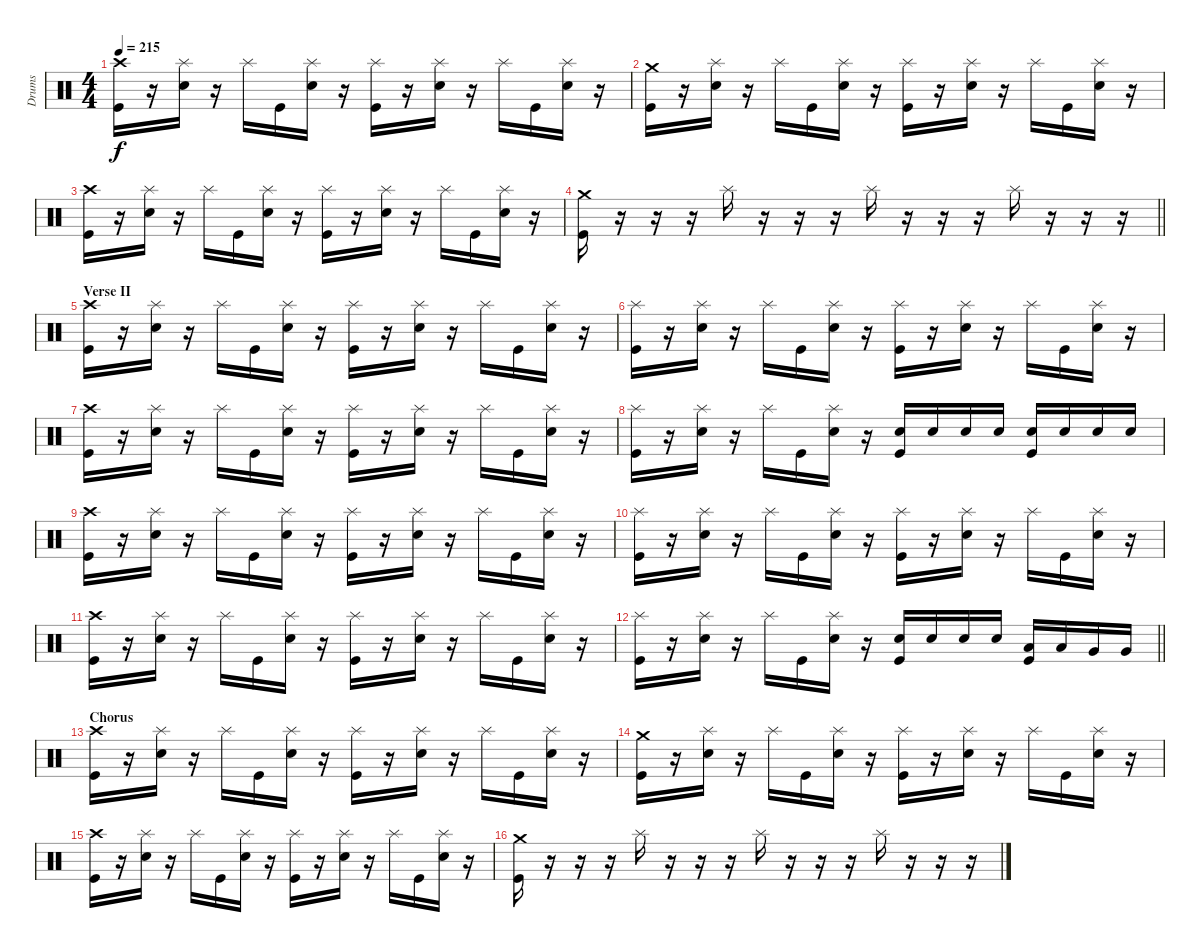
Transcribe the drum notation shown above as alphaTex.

\track ("Drums" "Drums") {instrument percussion}
\staff {score}
\articulation defaults
\ts (4 4)
\tempo 215
\clef neutral
\ks c
("Crash high (hit)" "Kick (hit)").16{dy f} r.16 ("Splash (hit)" "Electric Snare (hit)").16 r.16 "Splash (hit)".16 "Kick (hit)".16 ("Splash (hit)" "Electric Snare (hit)").16 r.16 ("Splash (hit)" "Kick (hit)").16 r.16 ("Splash (hit)" "Electric Snare (hit)").16 r.16 "Splash (hit)".16 "Kick (hit)".16 ("Splash (hit)" "Electric Snare (hit)").16 r.16 |
("Crash medium (hit)" "Kick (hit)").16 r.16 ("Splash (hit)" "Electric Snare (hit)").16 r.16 "Splash (hit)".16 "Kick (hit)".16 ("Splash (hit)" "Electric Snare (hit)").16 r.16 ("Splash (hit)" "Kick (hit)").16 r.16 ("Splash (hit)" "Electric Snare (hit)").16 r.16 "Splash (hit)".16 "Kick (hit)".16 ("Splash (hit)" "Electric Snare (hit)").16 r.16 |
("Crash high (hit)" "Kick (hit)").16 r.16 ("Splash (hit)" "Electric Snare (hit)").16 r.16 "Splash (hit)".16 "Kick (hit)".16 ("Splash (hit)" "Electric Snare (hit)").16 r.16 ("Splash (hit)" "Kick (hit)").16 r.16 ("Splash (hit)" "Electric Snare (hit)").16 r.16 "Splash (hit)".16 "Kick (hit)".16 ("Splash (hit)" "Electric Snare (hit)").16 r.16 |
\barLineRight lightlight
("Crash medium (hit)" "Kick (hit)").16 r.16 r.16 r.16 "Splash (hit)".16 r.16 r.16 r.16 "Splash (hit)".16 r.16 r.16 r.16 "Splash (hit)".16 r.16 r.16 r.16 |
\section ("" "Verse II")
("Crash high (hit)" "Kick (hit)").16 r.16 ("Splash (hit)" "Electric Snare (hit)").16 r.16 "Splash (hit)".16 "Kick (hit)".16 ("Splash (hit)" "Electric Snare (hit)").16 r.16 ("Splash (hit)" "Kick (hit)").16 r.16 ("Splash (hit)" "Electric Snare (hit)").16 r.16 "Splash (hit)".16 "Kick (hit)".16 ("Splash (hit)" "Electric Snare (hit)").16 r.16 |
("Splash (hit)" "Kick (hit)").16 r.16 ("Splash (hit)" "Electric Snare (hit)").16 r.16 "Splash (hit)".16 "Kick (hit)".16 ("Splash (hit)" "Electric Snare (hit)").16 r.16 ("Splash (hit)" "Kick (hit)").16 r.16 ("Splash (hit)" "Electric Snare (hit)").16 r.16 "Splash (hit)".16 "Kick (hit)".16 ("Splash (hit)" "Electric Snare (hit)").16 r.16 |
("Crash high (hit)" "Kick (hit)").16 r.16 ("Splash (hit)" "Electric Snare (hit)").16 r.16 "Splash (hit)".16 "Kick (hit)".16 ("Splash (hit)" "Electric Snare (hit)").16 r.16 ("Splash (hit)" "Kick (hit)").16 r.16 ("Splash (hit)" "Electric Snare (hit)").16 r.16 "Splash (hit)".16 "Kick (hit)".16 ("Splash (hit)" "Electric Snare (hit)").16 r.16 |
("Splash (hit)" "Kick (hit)").16 r.16 ("Splash (hit)" "Electric Snare (hit)").16 r.16 "Splash (hit)".16 "Kick (hit)".16 ("Splash (hit)" "Electric Snare (hit)").16 r.16 ("Electric Snare (hit)" "Kick (hit)").16 "Electric Snare (hit)".16 "Electric Snare (hit)".16 "Electric Snare (hit)".16 ("Electric Snare (hit)" "Kick (hit)").16 "Electric Snare (hit)".16 "Electric Snare (hit)".16 "Electric Snare (hit)".16 |
("Crash high (hit)" "Kick (hit)").16 r.16 ("Splash (hit)" "Electric Snare (hit)").16 r.16 "Splash (hit)".16 "Kick (hit)".16 ("Splash (hit)" "Electric Snare (hit)").16 r.16 ("Splash (hit)" "Kick (hit)").16 r.16 ("Splash (hit)" "Electric Snare (hit)").16 r.16 "Splash (hit)".16 "Kick (hit)".16 ("Splash (hit)" "Electric Snare (hit)").16 r.16 |
("Splash (hit)" "Kick (hit)").16 r.16 ("Splash (hit)" "Electric Snare (hit)").16 r.16 "Splash (hit)".16 "Kick (hit)".16 ("Splash (hit)" "Electric Snare (hit)").16 r.16 ("Splash (hit)" "Kick (hit)").16 r.16 ("Splash (hit)" "Electric Snare (hit)").16 r.16 "Splash (hit)".16 "Kick (hit)".16 ("Splash (hit)" "Electric Snare (hit)").16 r.16 |
("Crash high (hit)" "Kick (hit)").16 r.16 ("Splash (hit)" "Electric Snare (hit)").16 r.16 "Splash (hit)".16 "Kick (hit)".16 ("Splash (hit)" "Electric Snare (hit)").16 r.16 ("Splash (hit)" "Kick (hit)").16 r.16 ("Splash (hit)" "Electric Snare (hit)").16 r.16 "Splash (hit)".16 "Kick (hit)".16 ("Splash (hit)" "Electric Snare (hit)").16 r.16 |
\barLineRight lightlight
("Splash (hit)" "Kick (hit)").16 r.16 ("Splash (hit)" "Electric Snare (hit)").16 r.16 "Splash (hit)".16 "Kick (hit)".16 ("Splash (hit)" "Electric Snare (hit)").16 r.16 ("Electric Snare (hit)" "Kick (hit)").16 "Electric Snare (hit)".16 "Electric Snare (hit)".16 "Electric Snare (hit)".16 ("Low Tom (hit)" "Kick (hit)").16 "Low Tom (hit)".16 "Very Low Tom (hit)".16 "Very Low Tom (hit)".16 |
\section ("" "Chorus")
("Crash high (hit)" "Kick (hit)").16 r.16 ("Splash (hit)" "Electric Snare (hit)").16 r.16 "Splash (hit)".16 "Kick (hit)".16 ("Splash (hit)" "Electric Snare (hit)").16 r.16 ("Splash (hit)" "Kick (hit)").16 r.16 ("Splash (hit)" "Electric Snare (hit)").16 r.16 "Splash (hit)".16 "Kick (hit)".16 ("Splash (hit)" "Electric Snare (hit)").16 r.16 |
("Crash medium (hit)" "Kick (hit)").16 r.16 ("Splash (hit)" "Electric Snare (hit)").16 r.16 "Splash (hit)".16 "Kick (hit)".16 ("Splash (hit)" "Electric Snare (hit)").16 r.16 ("Splash (hit)" "Kick (hit)").16 r.16 ("Splash (hit)" "Electric Snare (hit)").16 r.16 "Splash (hit)".16 "Kick (hit)".16 ("Splash (hit)" "Electric Snare (hit)").16 r.16 |
("Crash high (hit)" "Kick (hit)").16 r.16 ("Splash (hit)" "Electric Snare (hit)").16 r.16 "Splash (hit)".16 "Kick (hit)".16 ("Splash (hit)" "Electric Snare (hit)").16 r.16 ("Splash (hit)" "Kick (hit)").16 r.16 ("Splash (hit)" "Electric Snare (hit)").16 r.16 "Splash (hit)".16 "Kick (hit)".16 ("Splash (hit)" "Electric Snare (hit)").16 r.16 |
("Crash medium (hit)" "Kick (hit)").16 r.16 r.16 r.16 "Splash (hit)".16 r.16 r.16 r.16 "Splash (hit)".16 r.16 r.16 r.16 "Splash (hit)".16 r.16 r.16 r.16
